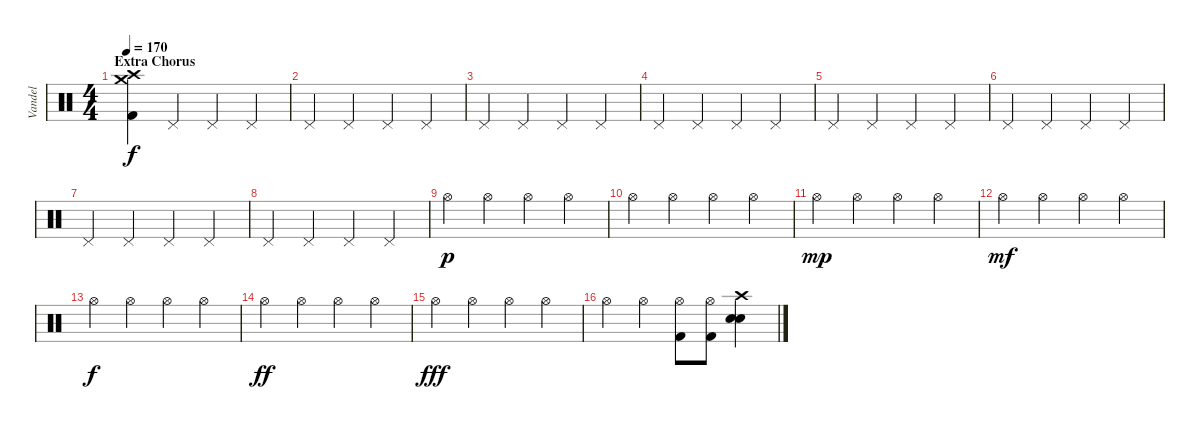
\track ("Vandel" "Vandel") {instrument percussion}
\staff {score}
\articulation defaults
\ts (4 4)
\section ("" "Extra Chorus")
\tempo 170
\clef neutral
\ks c
("Kick (hit) 2" "Crash medium (hit)" "Crash high (hit)").4{dy f} "Pedal Hi-Hat (hit)".4 "Pedal Hi-Hat (hit)".4 "Pedal Hi-Hat (hit)".4 |
"Pedal Hi-Hat (hit)".4 "Pedal Hi-Hat (hit)".4 "Pedal Hi-Hat (hit)".4 "Pedal Hi-Hat (hit)".4 |
"Pedal Hi-Hat (hit)".4 "Pedal Hi-Hat (hit)".4 "Pedal Hi-Hat (hit)".4 "Pedal Hi-Hat (hit)".4 |
"Pedal Hi-Hat (hit)".4 "Pedal Hi-Hat (hit)".4 "Pedal Hi-Hat (hit)".4 "Pedal Hi-Hat (hit)".4 |
"Pedal Hi-Hat (hit)".4 "Pedal Hi-Hat (hit)".4 "Pedal Hi-Hat (hit)".4 "Pedal Hi-Hat (hit)".4 |
"Pedal Hi-Hat (hit)".4 "Pedal Hi-Hat (hit)".4 "Pedal Hi-Hat (hit)".4 "Pedal Hi-Hat (hit)".4 |
"Pedal Hi-Hat (hit)".4 "Pedal Hi-Hat (hit)".4 "Pedal Hi-Hat (hit)".4 "Pedal Hi-Hat (hit)".4 |
"Pedal Hi-Hat (hit)".4 "Pedal Hi-Hat (hit)".4 "Pedal Hi-Hat (hit)".4 "Pedal Hi-Hat (hit)".4 |
"Hi-Hat (open)".4{dy p} "Hi-Hat (open)".4 "Hi-Hat (open)".4 "Hi-Hat (open)".4 |
"Hi-Hat (open)".4 "Hi-Hat (open)".4 "Hi-Hat (open)".4 "Hi-Hat (open)".4 |
"Hi-Hat (open)".4{dy mp} "Hi-Hat (open)".4 "Hi-Hat (open)".4 "Hi-Hat (open)".4 |
"Hi-Hat (open)".4{dy mf} "Hi-Hat (open)".4 "Hi-Hat (open)".4 "Hi-Hat (open)".4 |
"Hi-Hat (open)".4{dy f} "Hi-Hat (open)".4 "Hi-Hat (open)".4 "Hi-Hat (open)".4 |
"Hi-Hat (open)".4{dy ff} "Hi-Hat (open)".4 "Hi-Hat (open)".4 "Hi-Hat (open)".4 |
"Hi-Hat (open)".4{dy fff} "Hi-Hat (open)".4 "Hi-Hat (open)".4 "Hi-Hat (open)".4 |
"Hi-Hat (open)".4 "Hi-Hat (open)".4 ("Hi-Hat (open)" "Kick (hit) 2").8 ("Hi-Hat (open)" "Kick (hit) 2").8 ("Crash high (hit)" "Electric Snare (hit)" "Electric Snare (hit)").4
